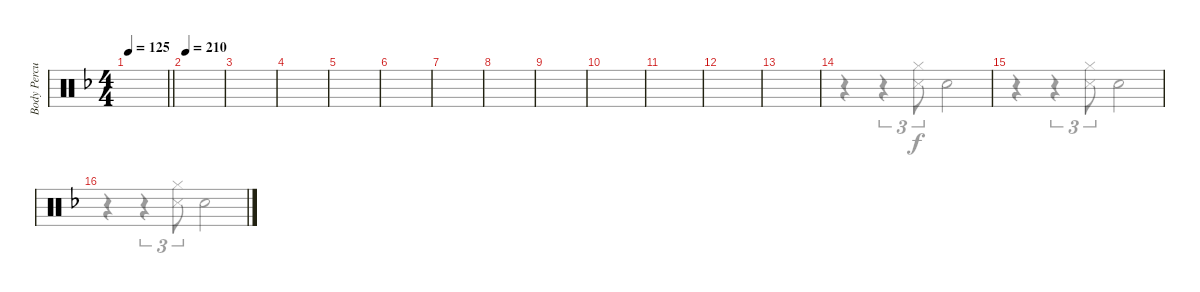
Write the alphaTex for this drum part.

\track ("Body Percussion" "Body Percu") {instrument percussion}
\staff {score}
\articulation defaults
\voice
\ts (4 4)
\tempo 125
\clef neutral
\barLineRight lightlight
\ks dminor
|
\tempo 210
|
|
|
|
|
|
|
|
|
|
|
|
|
|
\voice
\clef neutral
\barLineRight lightlight
\ks dminor
|
|
|
|
|
|
|
|
|
|
|
|
|
r.4 r.4{tu (3 2)} ("Snare (side stick) 3" "Hi-Hat (closed)").8{tu (3 2)} "Snare (hit) 2".2 |
r.4 r.4{tu (3 2)} ("Snare (side stick) 3" "Hi-Hat (closed)").8{tu (3 2)} "Snare (hit) 2".2 |
r.4 r.4{tu (3 2)} ("Snare (side stick) 3" "Hi-Hat (closed)").8{tu (3 2)} "Snare (hit) 2".2
